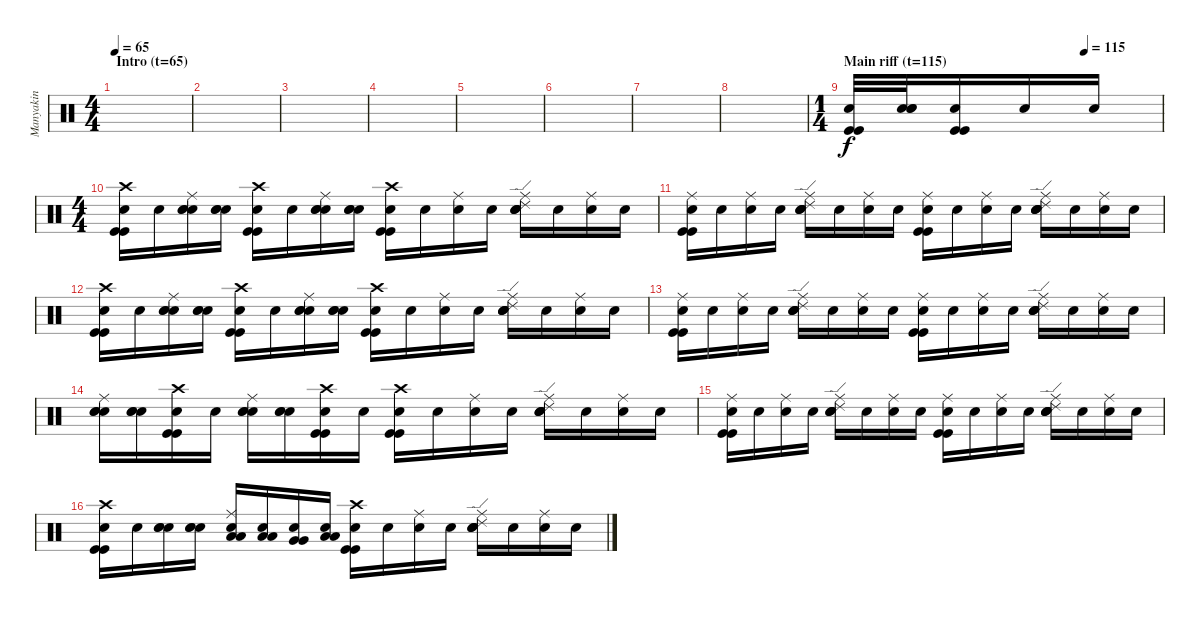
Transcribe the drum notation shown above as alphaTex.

\track ("Manyakin" "Manyakin") {instrument percussion}
\staff {score}
\articulation defaults
\ts (4 4)
\section ("" "Intro (t=65)")
\tempo 65
\clef neutral
\ks c
|
|
|
|
|
|
|
|
\ts (1 4)
\section ("" "Main riff (t=115)")
\tempo (115 0.75)
("Kick (hit)" "Kick (hit)" "Snare (hit)"{x}).32 ("Electric Snare (hit)" "Electric Snare (hit)" "Snare (hit)"{x}).32 ("Kick (hit)" "Kick (hit)" "Snare (hit)"{x}).16 "Snare (hit)"{x}.16 "Snare (hit)"{x}.16 |
\ts (4 4)
("Crash high (hit)" "Kick (hit)" "Kick (hit)" "Snare (hit)"{x}).16 "Snare (hit)"{x}.16 ("Ride (middle)" "Electric Snare (hit)" "Electric Snare (hit)" "Snare (hit)"{x}).16 ("Electric Snare (hit)" "Electric Snare (hit)" "Snare (hit)"{x}).16 ("Crash high (hit)" "Kick (hit)" "Kick (hit)" "Snare (hit)"{x}).16 "Snare (hit)"{x}.16 ("Ride (middle)" "Electric Snare (hit)" "Electric Snare (hit)" "Snare (hit)"{x}).16 ("Electric Snare (hit)" "Electric Snare (hit)" "Snare (hit)"{x}).16 ("Crash high (hit)" "Kick (hit)" "Kick (hit)" "Snare (hit)"{x}).16 "Snare (hit)"{x}.16 ("Ride (middle)" "Snare (hit)"{x}).16 "Snare (hit)"{x}.16 ("Ride (middle)" "Ride (edge) 2" "Electric Snare (hit)" "Electric Snare (hit)" "Snare (hit)"{x}).16 "Snare (hit)"{x}.16 ("Ride (middle)" "Snare (hit)"{x}).16 "Snare (hit)"{x}.16 |
("Ride (middle)" "Kick (hit)" "Kick (hit)" "Snare (hit)"{x}).16 "Snare (hit)"{x}.16 ("Ride (middle)" "Snare (hit)"{x}).16 "Snare (hit)"{x}.16 ("Ride (middle)" "Ride (edge) 2" "Electric Snare (hit)" "Electric Snare (hit)" "Snare (hit)"{x}).16 "Snare (hit)"{x}.16 ("Ride (middle)" "Snare (hit)"{x}).16 "Snare (hit)"{x}.16 ("Ride (middle)" "Kick (hit)" "Kick (hit)" "Snare (hit)"{x}).16 "Snare (hit)"{x}.16 ("Ride (middle)" "Snare (hit)"{x}).16 "Snare (hit)"{x}.16 ("Ride (middle)" "Ride (edge) 2" "Electric Snare (hit)" "Electric Snare (hit)" "Snare (hit)"{x}).16 "Snare (hit)"{x}.16 ("Ride (middle)" "Snare (hit)"{x}).16 "Snare (hit)"{x}.16 |
("Crash high (hit)" "Kick (hit)" "Kick (hit)" "Snare (hit)"{x}).16 "Snare (hit)"{x}.16 ("Ride (middle)" "Electric Snare (hit)" "Electric Snare (hit)" "Snare (hit)"{x}).16 ("Electric Snare (hit)" "Electric Snare (hit)" "Snare (hit)"{x}).16 ("Crash high (hit)" "Kick (hit)" "Kick (hit)" "Snare (hit)"{x}).16 "Snare (hit)"{x}.16 ("Ride (middle)" "Electric Snare (hit)" "Electric Snare (hit)" "Snare (hit)"{x}).16 ("Electric Snare (hit)" "Electric Snare (hit)" "Snare (hit)"{x}).16 ("Crash high (hit)" "Kick (hit)" "Kick (hit)" "Snare (hit)"{x}).16 "Snare (hit)"{x}.16 ("Ride (middle)" "Snare (hit)"{x}).16 "Snare (hit)"{x}.16 ("Ride (middle)" "Ride (edge) 2" "Electric Snare (hit)" "Electric Snare (hit)" "Snare (hit)"{x}).16 "Snare (hit)"{x}.16 ("Ride (middle)" "Snare (hit)"{x}).16 "Snare (hit)"{x}.16 |
("Ride (middle)" "Kick (hit)" "Kick (hit)" "Snare (hit)"{x}).16 "Snare (hit)"{x}.16 ("Ride (middle)" "Snare (hit)"{x}).16 "Snare (hit)"{x}.16 ("Ride (middle)" "Ride (edge) 2" "Electric Snare (hit)" "Electric Snare (hit)" "Snare (hit)"{x}).16 "Snare (hit)"{x}.16 ("Ride (middle)" "Snare (hit)"{x}).16 "Snare (hit)"{x}.16 ("Ride (middle)" "Kick (hit)" "Kick (hit)" "Snare (hit)"{x}).16 "Snare (hit)"{x}.16 ("Ride (middle)" "Snare (hit)"{x}).16 "Snare (hit)"{x}.16 ("Ride (middle)" "Ride (edge) 2" "Electric Snare (hit)" "Electric Snare (hit)" "Snare (hit)"{x}).16 "Snare (hit)"{x}.16 ("Ride (middle)" "Snare (hit)"{x}).16 "Snare (hit)"{x}.16 |
("Ride (middle)" "Electric Snare (hit)" "Electric Snare (hit)" "Snare (hit)"{x}).16 ("Electric Snare (hit)" "Electric Snare (hit)" "Snare (hit)"{x}).16 ("Crash high (hit)" "Kick (hit)" "Kick (hit)" "Snare (hit)"{x}).16 "Snare (hit)"{x}.16 ("Ride (middle)" "Electric Snare (hit)" "Electric Snare (hit)" "Snare (hit)"{x}).16 ("Electric Snare (hit)" "Electric Snare (hit)" "Snare (hit)"{x}).16 ("Crash high (hit)" "Kick (hit)" "Kick (hit)" "Snare (hit)"{x}).16 "Snare (hit)"{x}.16 ("Crash high (hit)" "Kick (hit)" "Kick (hit)" "Snare (hit)"{x}).16 "Snare (hit)"{x}.16 ("Ride (middle)" "Snare (hit)"{x}).16 "Snare (hit)"{x}.16 ("Ride (middle)" "Ride (edge) 2" "Electric Snare (hit)" "Electric Snare (hit)" "Snare (hit)"{x}).16 "Snare (hit)"{x}.16 ("Ride (middle)" "Snare (hit)"{x}).16 "Snare (hit)"{x}.16 |
("Ride (middle)" "Kick (hit)" "Kick (hit)" "Snare (hit)"{x}).16 "Snare (hit)"{x}.16 ("Ride (middle)" "Snare (hit)"{x}).16 "Snare (hit)"{x}.16 ("Ride (middle)" "Ride (edge) 2" "Electric Snare (hit)" "Electric Snare (hit)" "Snare (hit)"{x}).16 "Snare (hit)"{x}.16 ("Ride (middle)" "Snare (hit)"{x}).16 "Snare (hit)"{x}.16 ("Ride (middle)" "Kick (hit)" "Kick (hit)" "Snare (hit)"{x}).16 "Snare (hit)"{x}.16 ("Ride (middle)" "Snare (hit)"{x}).16 "Snare (hit)"{x}.16 ("Ride (middle)" "Ride (edge) 2" "Electric Snare (hit)" "Electric Snare (hit)" "Snare (hit)"{x}).16 "Snare (hit)"{x}.16 ("Ride (middle)" "Snare (hit)"{x}).16 "Snare (hit)"{x}.16 |
("Crash high (hit)" "Kick (hit)" "Kick (hit)" "Snare (hit)"{x}).16 "Snare (hit)"{x}.16 ("Electric Snare (hit)" "Electric Snare (hit)" "Snare (hit)"{x}).16 ("Electric Snare (hit)" "Electric Snare (hit)" "Snare (hit)"{x}).16 ("Ride (middle)" "Low Tom (hit)" "Low Tom (hit)" "Snare (hit)"{x}).16 ("Low Tom (hit)" "Low Tom (hit)" "Snare (hit)"{x}).16 ("Very Low Tom (hit)" "Very Low Tom (hit)" "Snare (hit)"{x}).16 ("Low Floor Tom (hit)" "Low Floor Tom (hit)" "Snare (hit)"{x}).16 ("Crash high (hit)" "Kick (hit)" "Kick (hit)" "Snare (hit)"{x}).16 "Snare (hit)"{x}.16 ("Ride (middle)" "Snare (hit)"{x}).16 "Snare (hit)"{x}.16 ("Ride (middle)" "Ride (edge) 2" "Electric Snare (hit)" "Electric Snare (hit)" "Snare (hit)"{x}).16 "Snare (hit)"{x}.16 ("Ride (middle)" "Snare (hit)"{x}).16 "Snare (hit)"{x}.16
